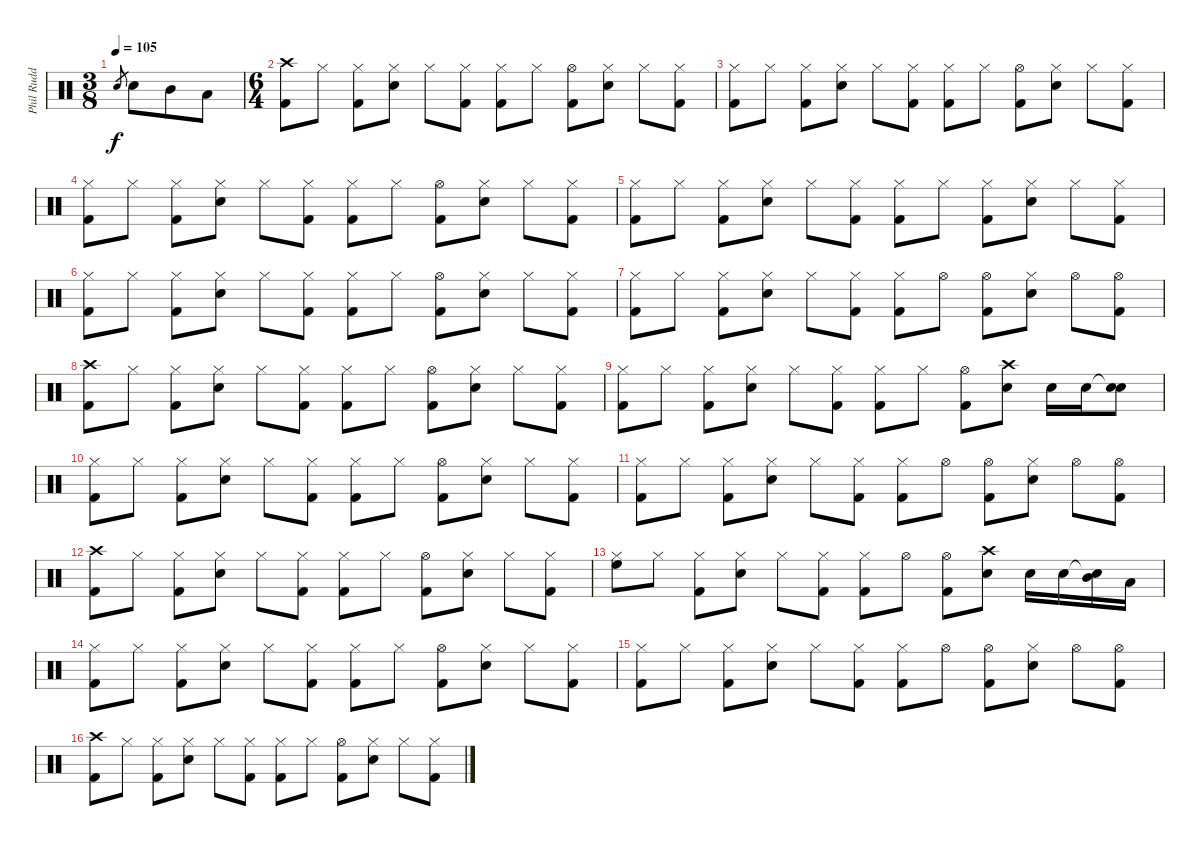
\track ("Phil Rudd" "Phil Rudd") {instrument percussion}
\staff {score}
\articulation defaults
\ts (3 8)
\tempo 105
\clef neutral
\ks c "Electric Snare (hit)".8{gr dy f} "Electric Snare (hit)".8 "Mid Tom (hit)".8 "Low Tom (hit)".8
|
\ts (6 4)
("Crash high (hit)" "Kick (hit) 2").8 "Hi-Hat (closed)".8 ("Hi-Hat (closed)" "Kick (hit) 2").8 ("Hi-Hat (closed)" "Electric Snare (hit)").8 "Hi-Hat (closed)".8 ("Hi-Hat (closed)" "Kick (hit) 2").8 ("Hi-Hat (closed)" "Kick (hit) 2").8 "Hi-Hat (closed)".8 ("Hi-Hat (open)" "Kick (hit) 2").8 ("Hi-Hat (closed)" "Electric Snare (hit)").8 "Hi-Hat (closed)".8 ("Hi-Hat (closed)" "Kick (hit) 2").8 |
("Hi-Hat (closed)" "Kick (hit) 2").8 "Hi-Hat (closed)".8 ("Hi-Hat (closed)" "Kick (hit) 2").8 ("Hi-Hat (closed)" "Electric Snare (hit)").8 "Hi-Hat (closed)".8 ("Hi-Hat (closed)" "Kick (hit) 2").8 ("Hi-Hat (closed)" "Kick (hit) 2").8 "Hi-Hat (closed)".8 ("Hi-Hat (open)" "Kick (hit) 2").8 ("Hi-Hat (closed)" "Electric Snare (hit)").8 "Hi-Hat (closed)".8 ("Hi-Hat (closed)" "Kick (hit) 2").8 |
("Hi-Hat (closed)" "Kick (hit) 2").8 "Hi-Hat (closed)".8 ("Hi-Hat (closed)" "Kick (hit) 2").8 ("Hi-Hat (closed)" "Electric Snare (hit)").8 "Hi-Hat (closed)".8 ("Hi-Hat (closed)" "Kick (hit) 2").8 ("Hi-Hat (closed)" "Kick (hit) 2").8 "Hi-Hat (closed)".8 ("Hi-Hat (open)" "Kick (hit) 2").8 ("Hi-Hat (closed)" "Electric Snare (hit)").8 "Hi-Hat (closed)".8 ("Hi-Hat (closed)" "Kick (hit) 2").8 |
("Hi-Hat (closed)" "Kick (hit) 2").8 "Hi-Hat (closed)".8 ("Hi-Hat (closed)" "Kick (hit) 2").8 ("Hi-Hat (closed)" "Electric Snare (hit)").8 "Hi-Hat (closed)".8 ("Hi-Hat (closed)" "Kick (hit) 2").8 ("Hi-Hat (closed)" "Kick (hit) 2").8 "Hi-Hat (closed)".8 ("Hi-Hat (closed)" "Kick (hit) 2").8 ("Hi-Hat (closed)" "Electric Snare (hit)").8 "Hi-Hat (closed)".8 ("Hi-Hat (closed)" "Kick (hit) 2").8 |
("Hi-Hat (closed)" "Kick (hit) 2").8 "Hi-Hat (closed)".8 ("Hi-Hat (closed)" "Kick (hit) 2").8 ("Hi-Hat (closed)" "Electric Snare (hit)").8 "Hi-Hat (closed)".8 ("Hi-Hat (closed)" "Kick (hit) 2").8 ("Hi-Hat (closed)" "Kick (hit) 2").8 "Hi-Hat (closed)".8 ("Hi-Hat (open)" "Kick (hit) 2").8 ("Hi-Hat (closed)" "Electric Snare (hit)").8 "Hi-Hat (closed)".8 ("Hi-Hat (closed)" "Kick (hit) 2").8 |
("Hi-Hat (closed)" "Kick (hit) 2").8 "Hi-Hat (closed)".8 ("Hi-Hat (closed)" "Kick (hit) 2").8 ("Hi-Hat (closed)" "Electric Snare (hit)").8 "Hi-Hat (closed)".8 ("Hi-Hat (closed)" "Kick (hit) 2").8 ("Hi-Hat (closed)" "Kick (hit) 2").8 "Hi-Hat (open)".8 ("Hi-Hat (open)" "Kick (hit) 2").8 ("Hi-Hat (closed)" "Electric Snare (hit)").8 "Hi-Hat (open)".8 ("Hi-Hat (open)" "Kick (hit) 2").8 |
("Crash high (hit)" "Kick (hit) 2").8 "Hi-Hat (closed)".8 ("Hi-Hat (closed)" "Kick (hit) 2").8 ("Hi-Hat (closed)" "Electric Snare (hit)").8 "Hi-Hat (closed)".8 ("Hi-Hat (closed)" "Kick (hit) 2").8 ("Hi-Hat (closed)" "Kick (hit) 2").8 "Hi-Hat (closed)".8 ("Hi-Hat (open)" "Kick (hit) 2").8 ("Hi-Hat (closed)" "Electric Snare (hit)").8 "Hi-Hat (closed)".8 ("Hi-Hat (closed)" "Kick (hit) 2").8 |
("Hi-Hat (closed)" "Kick (hit) 2").8 "Hi-Hat (closed)".8 ("Hi-Hat (closed)" "Kick (hit) 2").8 ("Hi-Hat (closed)" "Electric Snare (hit)").8 "Hi-Hat (closed)".8 ("Hi-Hat (closed)" "Kick (hit) 2").8 ("Hi-Hat (closed)" "Kick (hit) 2").8 "Hi-Hat (closed)".8 ("Hi-Hat (open)" "Kick (hit) 2").8 ("Crash high (hit)" "Electric Snare (hit)").8 "Electric Snare (hit)".16 "Electric Snare (hit)".16 ("Snare (hit)"{t} "Electric Snare (hit)").8 |
("Hi-Hat (closed)" "Kick (hit) 2").8 "Hi-Hat (closed)".8 ("Hi-Hat (closed)" "Kick (hit) 2").8 ("Hi-Hat (closed)" "Electric Snare (hit)").8 "Hi-Hat (closed)".8 ("Hi-Hat (closed)" "Kick (hit) 2").8 ("Hi-Hat (closed)" "Kick (hit) 2").8 "Hi-Hat (closed)".8 ("Hi-Hat (open)" "Kick (hit) 2").8 ("Hi-Hat (closed)" "Electric Snare (hit)").8 "Hi-Hat (closed)".8 ("Hi-Hat (closed)" "Kick (hit) 2").8 |
("Hi-Hat (closed)" "Kick (hit) 2").8 "Hi-Hat (closed)".8 ("Hi-Hat (closed)" "Kick (hit) 2").8 ("Hi-Hat (closed)" "Electric Snare (hit)").8 "Hi-Hat (closed)".8 ("Hi-Hat (closed)" "Kick (hit) 2").8 ("Hi-Hat (closed)" "Kick (hit) 2").8 "Hi-Hat (open)".8 ("Hi-Hat (open)" "Kick (hit) 2").8 ("Hi-Hat (closed)" "Electric Snare (hit)").8 "Hi-Hat (open)".8 ("Hi-Hat (open)" "Kick (hit) 2").8 |
("Crash high (hit)" "Kick (hit) 2").8 "Hi-Hat (closed)".8 ("Hi-Hat (closed)" "Kick (hit) 2").8 ("Hi-Hat (closed)" "Electric Snare (hit)").8 "Hi-Hat (closed)".8 ("Hi-Hat (closed)" "Kick (hit) 2").8 ("Hi-Hat (closed)" "Kick (hit) 2").8 "Hi-Hat (closed)".8 ("Hi-Hat (open)" "Kick (hit) 2").8 ("Hi-Hat (closed)" "Electric Snare (hit)").8 "Hi-Hat (closed)".8 ("Hi-Hat (closed)" "Kick (hit) 2").8 |
("Hi-Hat (closed)" "High Floor Tom (hit)").8 "Hi-Hat (closed)".8 ("Hi-Hat (closed)" "Kick (hit) 2").8 ("Hi-Hat (closed)" "Electric Snare (hit)").8 "Hi-Hat (closed)".8 ("Hi-Hat (closed)" "Kick (hit) 2").8 ("Hi-Hat (closed)" "Kick (hit) 2").8 "Hi-Hat (open)".8 ("Hi-Hat (open)" "Kick (hit) 2").8 ("Crash high (hit)" "Electric Snare (hit)").8 "Electric Snare (hit)".16 "Electric Snare (hit)".16 ("Snare (hit)"{t} "Mid Tom (hit)").16 "Low Tom (hit)".16 |
("Hi-Hat (closed)" "Kick (hit) 2").8 "Hi-Hat (closed)".8 ("Hi-Hat (closed)" "Kick (hit) 2").8 ("Hi-Hat (closed)" "Electric Snare (hit)").8 "Hi-Hat (closed)".8 ("Hi-Hat (closed)" "Kick (hit) 2").8 ("Hi-Hat (closed)" "Kick (hit) 2").8 "Hi-Hat (closed)".8 ("Hi-Hat (open)" "Kick (hit) 2").8 ("Hi-Hat (closed)" "Electric Snare (hit)").8 "Hi-Hat (closed)".8 ("Hi-Hat (closed)" "Kick (hit) 2").8 |
("Hi-Hat (closed)" "Kick (hit) 2").8 "Hi-Hat (closed)".8 ("Hi-Hat (closed)" "Kick (hit) 2").8 ("Hi-Hat (closed)" "Electric Snare (hit)").8 "Hi-Hat (closed)".8 ("Hi-Hat (closed)" "Kick (hit) 2").8 ("Hi-Hat (closed)" "Kick (hit) 2").8 "Hi-Hat (open)".8 ("Hi-Hat (open)" "Kick (hit) 2").8 ("Hi-Hat (closed)" "Electric Snare (hit)").8 "Hi-Hat (open)".8 ("Hi-Hat (open)" "Kick (hit) 2").8 |
("Crash high (hit)" "Kick (hit) 2").8 "Hi-Hat (closed)".8 ("Hi-Hat (closed)" "Kick (hit) 2").8 ("Hi-Hat (closed)" "Electric Snare (hit)").8 "Hi-Hat (closed)".8 ("Hi-Hat (closed)" "Kick (hit) 2").8 ("Hi-Hat (closed)" "Kick (hit) 2").8 "Hi-Hat (closed)".8 ("Hi-Hat (open)" "Kick (hit) 2").8 ("Hi-Hat (closed)" "Electric Snare (hit)").8 "Hi-Hat (closed)".8 ("Hi-Hat (closed)" "Kick (hit) 2").8
